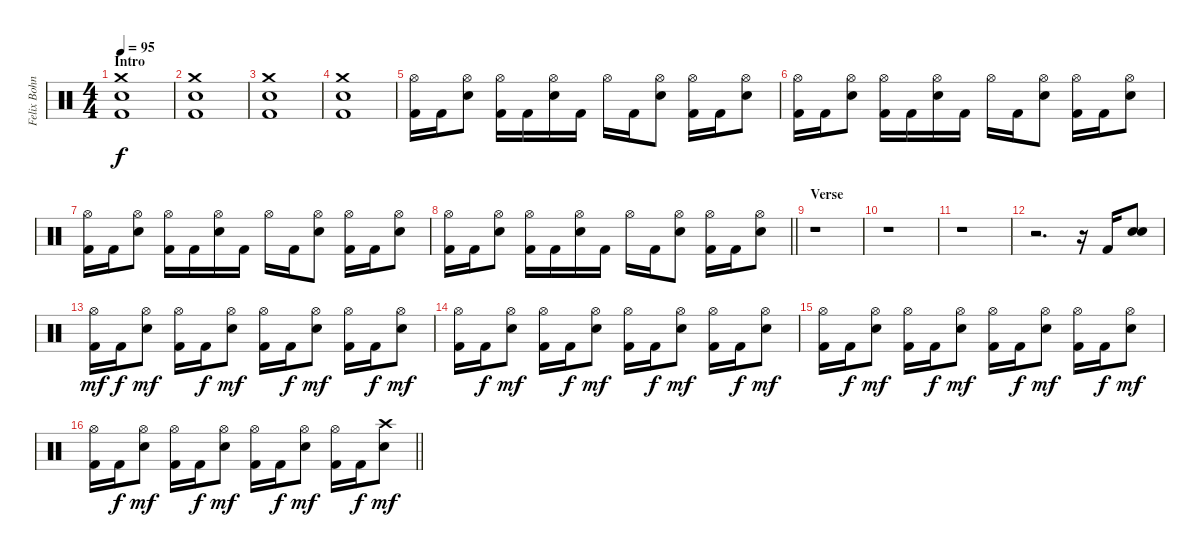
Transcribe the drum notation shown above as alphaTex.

\track ("Felix Bohnke" "Felix Bohn") {instrument percussion}
\staff {score}
\articulation defaults
\ts (4 4)
\section ("" "Intro")
\tempo 95
\clef neutral
\ks c
("Kick (hit) 2" "Snare (hit) 2" "Crash medium (hit)").1{dy f} |
("Kick (hit) 2" "Snare (hit) 2" "Crash medium (hit)").1 |
("Kick (hit) 2" "Snare (hit) 2" "Crash medium (hit)").1 |
("Kick (hit) 2" "Snare (hit) 2" "Crash medium (hit)").1 |
("Kick (hit) 2" "Hi-Hat (open)").16 "Kick (hit) 2".16 ("Snare (hit) 2" "Hi-Hat (open)").8 ("Kick (hit) 2" "Hi-Hat (open)").16 "Kick (hit) 2".16 ("Snare (hit) 2" "Hi-Hat (open)").16 "Kick (hit) 2".16 "Hi-Hat (open)".16 "Kick (hit) 2".16 ("Snare (hit) 2" "Hi-Hat (open)").8 ("Kick (hit) 2" "Hi-Hat (open)").16 "Kick (hit) 2".16 ("Snare (hit) 2" "Hi-Hat (open)").8 |
("Kick (hit) 2" "Hi-Hat (open)").16 "Kick (hit) 2".16 ("Snare (hit) 2" "Hi-Hat (open)").8 ("Kick (hit) 2" "Hi-Hat (open)").16 "Kick (hit) 2".16 ("Snare (hit) 2" "Hi-Hat (open)").16 "Kick (hit) 2".16 "Hi-Hat (open)".16 "Kick (hit) 2".16 ("Snare (hit) 2" "Hi-Hat (open)").8 ("Kick (hit) 2" "Hi-Hat (open)").16 "Kick (hit) 2".16 ("Snare (hit) 2" "Hi-Hat (open)").8 |
("Kick (hit) 2" "Hi-Hat (open)").16 "Kick (hit) 2".16 ("Snare (hit) 2" "Hi-Hat (open)").8 ("Kick (hit) 2" "Hi-Hat (open)").16 "Kick (hit) 2".16 ("Snare (hit) 2" "Hi-Hat (open)").16 "Kick (hit) 2".16 "Hi-Hat (open)".16 "Kick (hit) 2".16 ("Snare (hit) 2" "Hi-Hat (open)").8 ("Kick (hit) 2" "Hi-Hat (open)").16 "Kick (hit) 2".16 ("Snare (hit) 2" "Hi-Hat (open)").8 |
\barLineRight lightlight
("Kick (hit) 2" "Hi-Hat (open)").16 "Kick (hit) 2".16 ("Snare (hit) 2" "Hi-Hat (open)").8 ("Kick (hit) 2" "Hi-Hat (open)").16 "Kick (hit) 2".16 ("Snare (hit) 2" "Hi-Hat (open)").16 "Kick (hit) 2".16 "Hi-Hat (open)".16 "Kick (hit) 2".16 ("Snare (hit) 2" "Hi-Hat (open)").8 ("Kick (hit) 2" "Hi-Hat (open)").16 "Kick (hit) 2".16 ("Snare (hit) 2" "Hi-Hat (open)").8 |
\section ("" "Verse")
r.1 |
r.1 |
r.1 |
r.2{d} r.16 "Kick (hit) 2".16 ("Snare (hit) 2" "Snare (hit) 2").8{bd 60} |
("Hi-Hat (open)" "Kick (hit) 2").16{dy mf} "Kick (hit) 2".16{dy f} ("Hi-Hat (open)" "Snare (hit) 2").8{dy mf} ("Hi-Hat (open)" "Kick (hit) 2").16 "Kick (hit) 2".16{dy f} ("Hi-Hat (open)" "Snare (hit) 2").8{dy mf} ("Hi-Hat (open)" "Kick (hit) 2").16 "Kick (hit) 2".16{dy f} ("Hi-Hat (open)" "Snare (hit) 2").8{dy mf} ("Hi-Hat (open)" "Kick (hit) 2").16 "Kick (hit) 2".16{dy f} ("Hi-Hat (open)" "Snare (hit) 2").8{dy mf} |
("Hi-Hat (open)" "Kick (hit) 2").16 "Kick (hit) 2".16{dy f} ("Hi-Hat (open)" "Snare (hit) 2").8{dy mf} ("Hi-Hat (open)" "Kick (hit) 2").16 "Kick (hit) 2".16{dy f} ("Hi-Hat (open)" "Snare (hit) 2").8{dy mf} ("Hi-Hat (open)" "Kick (hit) 2").16 "Kick (hit) 2".16{dy f} ("Hi-Hat (open)" "Snare (hit) 2").8{dy mf} ("Hi-Hat (open)" "Kick (hit) 2").16 "Kick (hit) 2".16{dy f} ("Hi-Hat (open)" "Snare (hit) 2").8{dy mf} |
("Hi-Hat (open)" "Kick (hit) 2").16 "Kick (hit) 2".16{dy f} ("Hi-Hat (open)" "Snare (hit) 2").8{dy mf} ("Hi-Hat (open)" "Kick (hit) 2").16 "Kick (hit) 2".16{dy f} ("Hi-Hat (open)" "Snare (hit) 2").8{dy mf} ("Hi-Hat (open)" "Kick (hit) 2").16 "Kick (hit) 2".16{dy f} ("Hi-Hat (open)" "Snare (hit) 2").8{dy mf} ("Hi-Hat (open)" "Kick (hit) 2").16 "Kick (hit) 2".16{dy f} ("Hi-Hat (open)" "Snare (hit) 2").8{dy mf} |
\barLineRight lightlight
("Hi-Hat (open)" "Kick (hit) 2").16 "Kick (hit) 2".16{dy f} ("Hi-Hat (open)" "Snare (hit) 2").8{dy mf} ("Hi-Hat (open)" "Kick (hit) 2").16 "Kick (hit) 2".16{dy f} ("Hi-Hat (open)" "Snare (hit) 2").8{dy mf} ("Hi-Hat (open)" "Kick (hit) 2").16 "Kick (hit) 2".16{dy f} ("Hi-Hat (open)" "Snare (hit) 2").8{dy mf} ("Hi-Hat (open)" "Kick (hit) 2").16 "Kick (hit) 2".16{dy f} ("Crash high (hit)" "Snare (hit) 2").8{dy mf}
